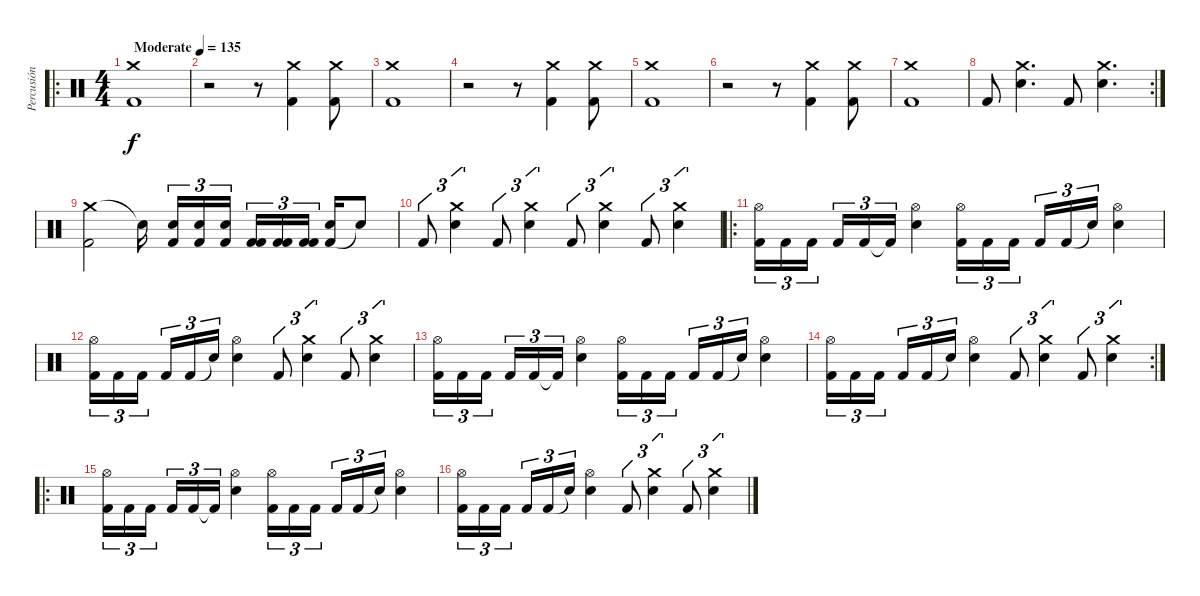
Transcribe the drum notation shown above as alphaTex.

\track ("Percusión" "Percusión") {instrument percussion}
\staff {score}
\articulation defaults
\ro
\ts (4 4)
\tempo (135 "Moderate")
\clef neutral
\ks c
("Crash medium (hit)" "Kick (hit) 2").1{dy f} |
r.2 r.8 ("Crash medium (hit)" "Kick (hit) 2").4 ("Crash medium (hit)" "Kick (hit) 2").8 |
("Crash medium (hit)" "Kick (hit) 2").1 |
r.2 r.8 ("Crash medium (hit)" "Kick (hit) 2").4 ("Crash medium (hit)" "Kick (hit) 2").8 |
("Crash medium (hit)" "Kick (hit) 2").1 |
r.2 r.8 ("Crash medium (hit)" "Kick (hit) 2").4 ("Crash medium (hit)" "Kick (hit) 2").8 |
("Crash medium (hit)" "Kick (hit) 2").1 |
\rc 2 "Kick (hit) 2".8
("Crash medium (hit)" "Snare (hit) 2").4{d} "Kick (hit) 2".8 ("Crash medium (hit)" "Snare (hit) 2").4{d} |
("Crash medium (hit)" "Kick (hit) 2").2 "Snare (hit)"{t}.16{beam splitsecondary} ("Kick (hit) 2" "Snare (hit) 2").16{tu (3 2)} ("Kick (hit) 2" "Snare (hit) 2").16{tu (3 2)} ("Kick (hit) 2" "Snare (hit) 2").16{tu (3 2) beam splitsecondary} ("Kick (hit) 2" "Kick (hit) 2").16{tu (3 2)} ("Kick (hit) 2" "Kick (hit) 2").16{tu (3 2)} ("Kick (hit) 2" "Kick (hit) 2").16{tu (3 2) beam splitsecondary} ("Kick (hit) 2" "Snare (hit) 2").16 "Snare (hit)"{t}.8 |
"Kick (hit) 2".8{tu (3 2)} ("Crash medium (hit)" "Snare (hit) 2").4{tu (3 2)} "Kick (hit) 2".8{tu (3 2)} ("Crash medium (hit)" "Snare (hit) 2").4{tu (3 2)} "Kick (hit) 2".8{tu (3 2)} ("Crash medium (hit)" "Snare (hit) 2").4{tu (3 2)} "Kick (hit) 2".8{tu (3 2)} ("Crash medium (hit)" "Snare (hit) 2").4{tu (3 2)} |
\ro
("Hi-Hat (open)" "Kick (hit) 2").16{tu (3 2)} "Kick (hit) 2".16{tu (3 2)} "Kick (hit) 2".16{tu (3 2) beam splitsecondary} "Kick (hit) 2".16{tu (3 2)} "Kick (hit) 2".16{tu (3 2)} "Kick (hit) 2"{t}.16{tu (3 2)} ("Hi-Hat (open)" "Snare (hit) 2").4 ("Hi-Hat (open)" "Kick (hit) 2").16{tu (3 2)} "Kick (hit) 2".16{tu (3 2)} "Kick (hit) 2".16{tu (3 2) beam splitsecondary} "Kick (hit) 2".16{tu (3 2)} "Kick (hit) 2".16{tu (3 2)} "Snare (hit)"{t}.16{tu (3 2)} ("Hi-Hat (open)" "Snare (hit) 2").4 |
("Hi-Hat (open)" "Kick (hit) 2").16{tu (3 2)} "Kick (hit) 2".16{tu (3 2)} "Kick (hit) 2".16{tu (3 2) beam splitsecondary} "Kick (hit) 2".16{tu (3 2)} "Kick (hit) 2".16{tu (3 2)} "Snare (hit)"{t}.16{tu (3 2)} ("Hi-Hat (open)" "Snare (hit) 2").4 "Kick (hit) 2".8{tu (3 2)} ("Crash medium (hit)" "Snare (hit) 2").4{tu (3 2)} "Kick (hit) 2".8{tu (3 2)} ("Crash medium (hit)" "Snare (hit) 2").4{tu (3 2)} |
("Hi-Hat (open)" "Kick (hit) 2").16{tu (3 2)} "Kick (hit) 2".16{tu (3 2)} "Kick (hit) 2".16{tu (3 2) beam splitsecondary} "Kick (hit) 2".16{tu (3 2)} "Kick (hit) 2".16{tu (3 2)} "Kick (hit) 2"{t}.16{tu (3 2)} ("Hi-Hat (open)" "Snare (hit) 2").4 ("Hi-Hat (open)" "Kick (hit) 2").16{tu (3 2)} "Kick (hit) 2".16{tu (3 2)} "Kick (hit) 2".16{tu (3 2) beam splitsecondary} "Kick (hit) 2".16{tu (3 2)} "Kick (hit) 2".16{tu (3 2)} "Snare (hit)"{t}.16{tu (3 2)} ("Hi-Hat (open)" "Snare (hit) 2").4 |
\rc 2
("Hi-Hat (open)" "Kick (hit) 2").16{tu (3 2)} "Kick (hit) 2".16{tu (3 2)} "Kick (hit) 2".16{tu (3 2) beam splitsecondary} "Kick (hit) 2".16{tu (3 2)} "Kick (hit) 2".16{tu (3 2)} "Snare (hit)"{t}.16{tu (3 2)} ("Hi-Hat (open)" "Snare (hit) 2").4 "Kick (hit) 2".8{tu (3 2)} ("Crash medium (hit)" "Snare (hit) 2").4{tu (3 2)} "Kick (hit) 2".8{tu (3 2)} ("Crash medium (hit)" "Snare (hit) 2").4{tu (3 2)} |
\ro
("Hi-Hat (open)" "Kick (hit) 2").16{tu (3 2)} "Kick (hit) 2".16{tu (3 2)} "Kick (hit) 2".16{tu (3 2) beam splitsecondary} "Kick (hit) 2".16{tu (3 2)} "Kick (hit) 2".16{tu (3 2)} "Kick (hit) 2"{t}.16{tu (3 2)} ("Hi-Hat (open)" "Snare (hit) 2").4 ("Hi-Hat (open)" "Kick (hit) 2").16{tu (3 2)} "Kick (hit) 2".16{tu (3 2)} "Kick (hit) 2".16{tu (3 2) beam splitsecondary} "Kick (hit) 2".16{tu (3 2)} "Kick (hit) 2".16{tu (3 2)} "Snare (hit)"{t}.16{tu (3 2)} ("Hi-Hat (open)" "Snare (hit) 2").4 |
("Hi-Hat (open)" "Kick (hit) 2").16{tu (3 2)} "Kick (hit) 2".16{tu (3 2)} "Kick (hit) 2".16{tu (3 2) beam splitsecondary} "Kick (hit) 2".16{tu (3 2)} "Kick (hit) 2".16{tu (3 2)} "Snare (hit)"{t}.16{tu (3 2)} ("Hi-Hat (open)" "Snare (hit) 2").4 "Kick (hit) 2".8{tu (3 2)} ("Crash medium (hit)" "Snare (hit) 2").4{tu (3 2)} "Kick (hit) 2".8{tu (3 2)} ("Crash medium (hit)" "Snare (hit) 2").4{tu (3 2)}
